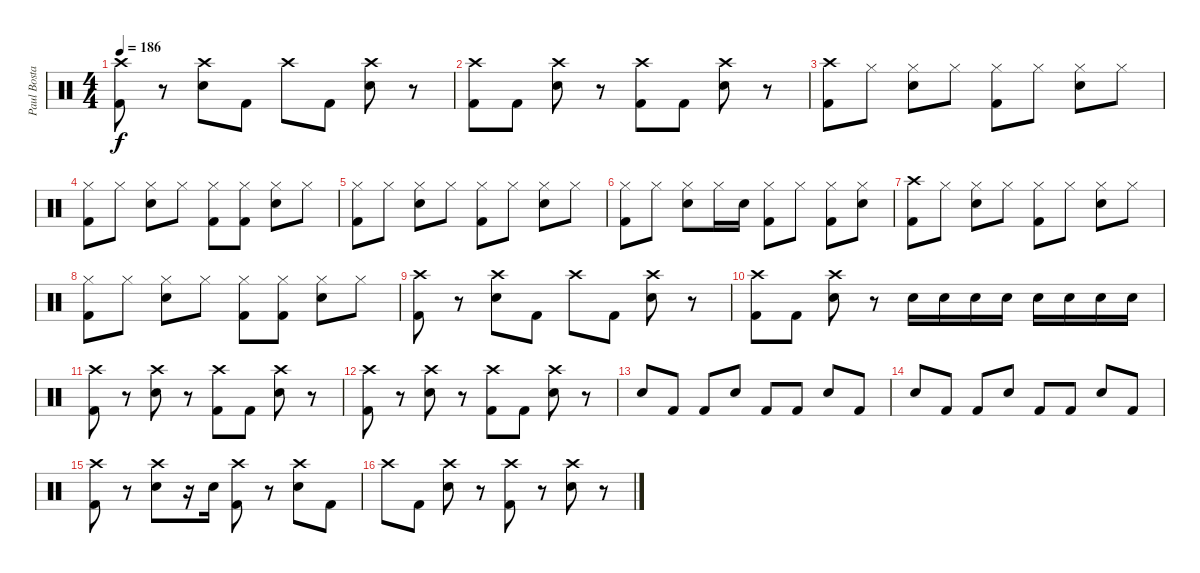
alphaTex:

\track ("Paul Bostaph" "Paul Bosta") {instrument percussion}
\staff {score}
\articulation defaults
\ts (4 4)
\tempo 186
\clef neutral
\ks c
("Crash high (hit)" "Kick (hit) 2").8{dy f} r.8 ("Crash high (hit)" "Electric Snare (hit)").8 "Kick (hit) 2".8 "Crash high (hit)".8 "Kick (hit) 2".8 ("Crash high (hit)" "Electric Snare (hit)").8 r.8 |
("Crash high (hit)" "Kick (hit) 2").8 "Kick (hit) 2".8 ("Crash high (hit)" "Electric Snare (hit)").8 r.8 ("Crash high (hit)" "Kick (hit) 2").8 "Kick (hit) 2".8 ("Crash high (hit)" "Electric Snare (hit)").8 r.8 |
("Crash high (hit)" "Kick (hit) 2").8 "Hi-Hat (closed)".8 ("Hi-Hat (closed)" "Electric Snare (hit)").8 "Hi-Hat (closed)".8 ("Hi-Hat (closed)" "Kick (hit) 2").8 "Hi-Hat (closed)".8 ("Hi-Hat (closed)" "Electric Snare (hit)").8 "Hi-Hat (closed)".8 |
("Hi-Hat (closed)" "Kick (hit) 2").8 "Hi-Hat (closed)".8 ("Hi-Hat (closed)" "Electric Snare (hit)").8 "Hi-Hat (closed)".8 ("Hi-Hat (closed)" "Kick (hit) 2").8 ("Hi-Hat (closed)" "Kick (hit) 2").8 ("Hi-Hat (closed)" "Electric Snare (hit)").8 "Hi-Hat (closed)".8 |
("Hi-Hat (closed)" "Kick (hit) 2").8 "Hi-Hat (closed)".8 ("Hi-Hat (closed)" "Electric Snare (hit)").8 "Hi-Hat (closed)".8 ("Hi-Hat (closed)" "Kick (hit) 2").8 "Hi-Hat (closed)".8 ("Hi-Hat (closed)" "Electric Snare (hit)").8 "Hi-Hat (closed)".8 |
("Hi-Hat (closed)" "Kick (hit) 2").8 "Hi-Hat (closed)".8 ("Hi-Hat (closed)" "Electric Snare (hit)").8 "Hi-Hat (closed)".16 "Electric Snare (hit)".16 ("Hi-Hat (closed)" "Kick (hit) 2").8 "Hi-Hat (closed)".8 ("Hi-Hat (closed)" "Kick (hit) 2").8 ("Hi-Hat (closed)" "Electric Snare (hit)").8 |
("Crash high (hit)" "Kick (hit) 2").8 "Hi-Hat (closed)".8 ("Hi-Hat (closed)" "Electric Snare (hit)").8 "Hi-Hat (closed)".8 ("Hi-Hat (closed)" "Kick (hit) 2").8 "Hi-Hat (closed)".8 ("Hi-Hat (closed)" "Electric Snare (hit)").8 "Hi-Hat (closed)".8 |
("Hi-Hat (closed)" "Kick (hit) 2").8 "Hi-Hat (closed)".8 ("Hi-Hat (closed)" "Electric Snare (hit)").8 "Hi-Hat (closed)".8 ("Hi-Hat (closed)" "Kick (hit) 2").8 ("Hi-Hat (closed)" "Kick (hit) 2").8 ("Hi-Hat (closed)" "Electric Snare (hit)").8 "Hi-Hat (closed)".8 |
("Crash high (hit)" "Kick (hit) 2").8 r.8 ("Crash high (hit)" "Electric Snare (hit)").8 "Kick (hit) 2".8 "Crash high (hit)".8 "Kick (hit) 2".8 ("Crash high (hit)" "Electric Snare (hit)").8 r.8 |
("Crash high (hit)" "Kick (hit) 2").8 "Kick (hit) 2".8 ("Crash high (hit)" "Electric Snare (hit)").8 r.8 "Electric Snare (hit)".16 "Electric Snare (hit)".16 "Electric Snare (hit)".16 "Electric Snare (hit)".16 "Electric Snare (hit)".16 "Electric Snare (hit)".16 "Electric Snare (hit)".16 "Electric Snare (hit)".16 |
("Crash high (hit)" "Kick (hit) 2").8 r.8 ("Crash high (hit)" "Electric Snare (hit)").8 r.8 ("Crash high (hit)" "Kick (hit) 2").8 "Kick (hit) 2".8 ("Crash high (hit)" "Electric Snare (hit)").8 r.8 |
("Crash high (hit)" "Kick (hit) 2").8 r.8 ("Crash high (hit)" "Electric Snare (hit)").8 r.8 ("Crash high (hit)" "Kick (hit) 2").8 "Kick (hit) 2".8 ("Crash high (hit)" "Electric Snare (hit)").8 r.8 |
"Electric Snare (hit)".8 "Kick (hit) 2".8 "Kick (hit) 2".8 "Electric Snare (hit)".8 "Kick (hit) 2".8 "Kick (hit) 2".8 "Electric Snare (hit)".8 "Kick (hit) 2".8 |
"Electric Snare (hit)".8 "Kick (hit) 2".8 "Kick (hit) 2".8 "Electric Snare (hit)".8 "Kick (hit) 2".8 "Kick (hit) 2".8 "Electric Snare (hit)".8 "Kick (hit) 2".8 |
("Crash high (hit)" "Kick (hit) 2").8 r.8 ("Crash high (hit)" "Electric Snare (hit)").8 r.16 "Electric Snare (hit)".16 ("Crash high (hit)" "Kick (hit) 2").8 r.8 ("Crash high (hit)" "Electric Snare (hit)").8 "Kick (hit) 2".8 |
"Crash high (hit)".8 "Kick (hit) 2".8 ("Crash high (hit)" "Electric Snare (hit)").8 r.8 ("Crash high (hit)" "Kick (hit) 2").8 r.8 ("Crash high (hit)" "Electric Snare (hit)").8 r.8
